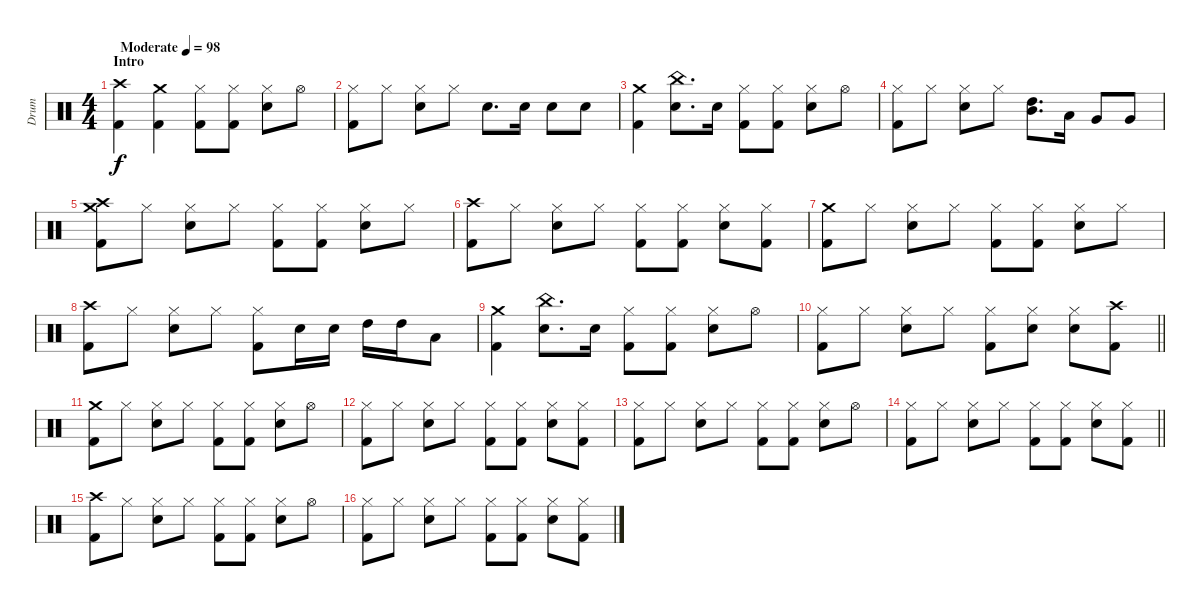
\track ("Drum" "Drum") {instrument percussion}
\staff {score}
\articulation defaults
\ts (4 4)
\section ("" "Intro")
\tempo (98 "Moderate")
\clef neutral
\ks c
("Crash high (hit)" "Kick (hit) 2").4{dy f} ("Crash medium (hit)" "Kick (hit) 2").4 ("Hi-Hat (closed)" "Kick (hit) 2").8 ("Hi-Hat (closed)" "Kick (hit) 2").8 ("Hi-Hat (closed)" "Snare (hit) 2").8 "Hi-Hat (open)".8 |
("Hi-Hat (closed)" "Kick (hit) 2").8 "Hi-Hat (closed)".8 ("Hi-Hat (closed)" "Snare (hit) 2").8 "Hi-Hat (closed)".8 "Snare (hit) 2".8{d} "Snare (hit) 2".16 "Snare (hit) 2".8 "Snare (hit) 2".8 |
("Crash medium (hit)" "Kick (hit) 2").4 ("China (hit)" "Snare (hit) 2").8{d} "Snare (hit) 2".16 ("Hi-Hat (closed)" "Kick (hit) 2").8 ("Hi-Hat (closed)" "Kick (hit) 2").8 ("Hi-Hat (closed)" "Snare (hit) 2").8 "Hi-Hat (open)".8 |
("Hi-Hat (closed)" "Kick (hit) 2").8 "Hi-Hat (closed)".8 ("Hi-Hat (closed)" "Snare (hit) 2").8 "Hi-Hat (closed)".8 ("High Tom (hit)" "Mid Tom (hit)").8{d} "Low Tom (hit)".16 "Very Low Tom (hit)".8 "Very Low Tom (hit)".8 |
("Crash medium (hit)" "Crash high (hit)" "Kick (hit) 2").8 "Hi-Hat (closed)".8 ("Hi-Hat (closed)" "Snare (hit) 2").8 "Hi-Hat (closed)".8 ("Hi-Hat (closed)" "Kick (hit) 2").8 ("Hi-Hat (closed)" "Kick (hit) 2").8 ("Hi-Hat (closed)" "Snare (hit) 2").8 "Hi-Hat (closed)".8 |
("Crash high (hit)" "Kick (hit) 2").8 "Hi-Hat (closed)".8 ("Hi-Hat (closed)" "Snare (hit) 2").8 "Hi-Hat (closed)".8 ("Hi-Hat (closed)" "Kick (hit) 2").8 ("Hi-Hat (closed)" "Kick (hit) 2").8 ("Hi-Hat (closed)" "Snare (hit) 2").8 ("Hi-Hat (closed)" "Kick (hit) 2").8 |
("Crash medium (hit)" "Kick (hit) 2").8 "Hi-Hat (closed)".8 ("Hi-Hat (closed)" "Snare (hit) 2").8 "Hi-Hat (closed)".8 ("Hi-Hat (closed)" "Kick (hit) 2").8 ("Hi-Hat (closed)" "Kick (hit) 2").8 ("Hi-Hat (closed)" "Snare (hit) 2").8 "Hi-Hat (closed)".8 |
("Crash high (hit)" "Kick (hit) 2").8 "Hi-Hat (closed)".8 ("Hi-Hat (closed)" "Snare (hit) 2").8 "Hi-Hat (closed)".8 ("Hi-Hat (closed)" "Kick (hit) 2").8 "Snare (hit) 2".16 "Snare (hit) 2".16 "High Tom (hit)".16 "High Tom (hit)".16 "Low Tom (hit)".8 |
("Crash medium (hit)" "Kick (hit) 2").4 ("China (hit)" "Snare (hit) 2").8{d} "Snare (hit) 2".16 ("Hi-Hat (closed)" "Kick (hit) 2").8 ("Hi-Hat (closed)" "Kick (hit) 2").8 ("Hi-Hat (closed)" "Snare (hit) 2").8 "Hi-Hat (open)".8 |
\barLineRight lightlight
("Hi-Hat (closed)" "Kick (hit) 2").8 "Hi-Hat (closed)".8 ("Hi-Hat (closed)" "Snare (hit) 2").8 "Hi-Hat (closed)".8 ("Hi-Hat (closed)" "Kick (hit) 2").8 ("Hi-Hat (closed)" "Snare (hit) 2").8 ("Hi-Hat (closed)" "Snare (hit) 2").8 ("Crash high (hit)" "Kick (hit) 2").8 |
\section ("" "")
("Crash medium (hit)" "Kick (hit) 2").8 "Hi-Hat (closed)".8 ("Hi-Hat (closed)" "Snare (hit) 2").8 "Hi-Hat (closed)".8 ("Hi-Hat (closed)" "Kick (hit) 2").8 ("Hi-Hat (closed)" "Kick (hit) 2").8 ("Hi-Hat (closed)" "Snare (hit) 2").8 "Hi-Hat (open)".8 |
("Hi-Hat (closed)" "Kick (hit) 2").8 "Hi-Hat (closed)".8 ("Hi-Hat (closed)" "Snare (hit) 2").8 "Hi-Hat (closed)".8 ("Hi-Hat (closed)" "Kick (hit) 2").8 ("Hi-Hat (closed)" "Kick (hit) 2").8 ("Hi-Hat (closed)" "Snare (hit) 2").8 ("Hi-Hat (closed)" "Kick (hit) 2").8 |
("Hi-Hat (closed)" "Kick (hit) 2").8 "Hi-Hat (closed)".8 ("Hi-Hat (closed)" "Snare (hit) 2").8 "Hi-Hat (closed)".8 ("Hi-Hat (closed)" "Kick (hit) 2").8 ("Hi-Hat (closed)" "Kick (hit) 2").8 ("Hi-Hat (closed)" "Snare (hit) 2").8 "Hi-Hat (open)".8 |
\barLineRight lightlight
("Hi-Hat (closed)" "Kick (hit) 2").8 "Hi-Hat (closed)".8 ("Hi-Hat (closed)" "Snare (hit) 2").8 "Hi-Hat (closed)".8 ("Hi-Hat (closed)" "Kick (hit) 2").8 ("Hi-Hat (closed)" "Kick (hit) 2").8 ("Hi-Hat (closed)" "Snare (hit) 2").8 ("Hi-Hat (closed)" "Kick (hit) 2").8 |
\section ("" "")
("Crash high (hit)" "Kick (hit) 2").8 "Hi-Hat (closed)".8 ("Hi-Hat (closed)" "Snare (hit) 2").8 "Hi-Hat (closed)".8 ("Hi-Hat (closed)" "Kick (hit) 2").8 ("Hi-Hat (closed)" "Kick (hit) 2").8 ("Hi-Hat (closed)" "Snare (hit) 2").8 "Hi-Hat (open)".8 |
("Hi-Hat (closed)" "Kick (hit) 2").8 "Hi-Hat (closed)".8 ("Hi-Hat (closed)" "Snare (hit) 2").8 "Hi-Hat (closed)".8 ("Hi-Hat (closed)" "Kick (hit) 2").8 ("Hi-Hat (closed)" "Kick (hit) 2").8 ("Hi-Hat (closed)" "Snare (hit) 2").8 ("Hi-Hat (closed)" "Kick (hit) 2").8
